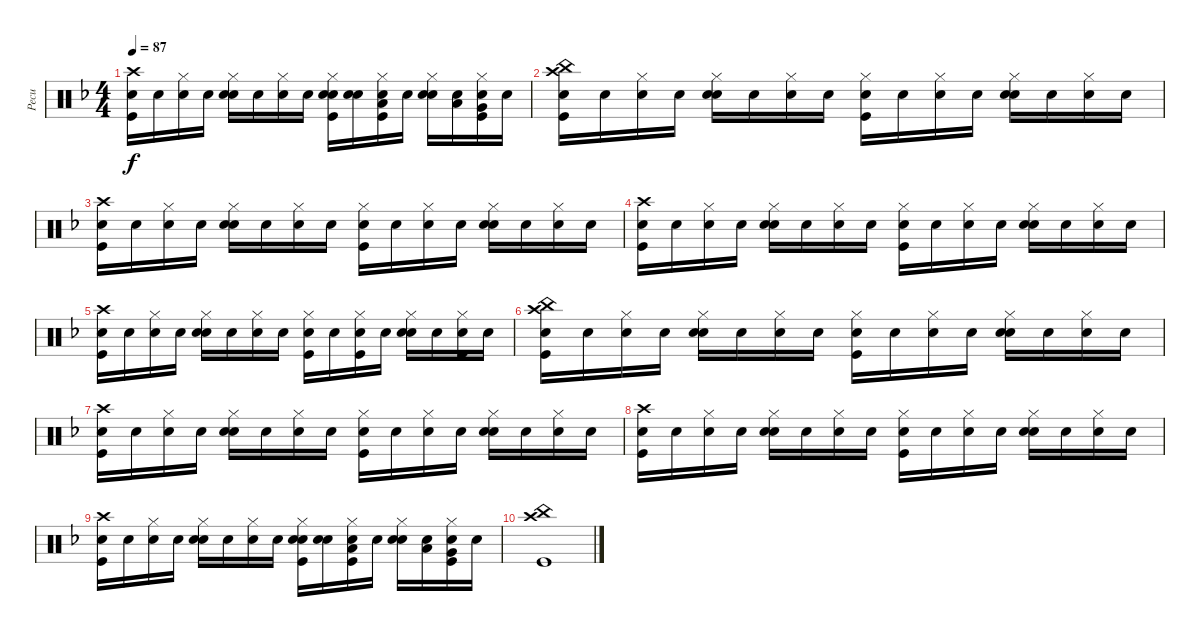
\track ("Pecu" "Pecu") {instrument percussion}
\staff {score}
\articulation defaults
\ts (4 4)
\tempo 87
\clef neutral
\ks dminor
("Snare (hit)" "Crash high (hit)" "Kick (hit)").16{dy f} "Snare (hit)".16 ("Snare (hit)" "Hi-Hat (closed)").16 "Snare (hit)".16 ("Snare (hit)" "Hi-Hat (closed)" "Snare (hit) 2").16 "Snare (hit)".16 ("Snare (hit)" "Hi-Hat (closed)").16 "Snare (hit)".16 ("Snare (hit)" "Hi-Hat (closed)" "Snare (hit) 2" "Kick (hit)").16 ("Snare (hit)" "Snare (hit) 2").16 ("Snare (hit)" "Hi-Hat (closed)" "Low Tom (hit)" "Kick (hit)").16 "Snare (hit)".16 ("Snare (hit)" "Hi-Hat (closed)" "Snare (hit) 2").16 ("Snare (hit)" "Low Tom (hit)").16 ("Snare (hit)" "Hi-Hat (closed)" "Very Low Tom (hit)" "Kick (hit)").16 "Snare (hit)".16 |
("Snare (hit)" "Crash high (hit)" "China (hit)" "Kick (hit)").16 "Snare (hit)".16 ("Snare (hit)" "Hi-Hat (closed)").16 "Snare (hit)".16 ("Snare (hit)" "Hi-Hat (closed)" "Snare (hit) 2").16 "Snare (hit)".16 ("Snare (hit)" "Hi-Hat (closed)").16 "Snare (hit)".16 ("Snare (hit)" "Hi-Hat (closed)" "Kick (hit)").16 "Snare (hit)".16 ("Snare (hit)" "Hi-Hat (closed)").16 "Snare (hit)".16 ("Snare (hit)" "Hi-Hat (closed)" "Snare (hit) 2").16 "Snare (hit)".16 ("Snare (hit)" "Hi-Hat (closed)").16 "Snare (hit)".16 |
("Snare (hit)" "Crash high (hit)" "Kick (hit)").16 "Snare (hit)".16 ("Snare (hit)" "Hi-Hat (closed)").16 "Snare (hit)".16 ("Snare (hit)" "Hi-Hat (closed)" "Snare (hit) 2").16 "Snare (hit)".16 ("Snare (hit)" "Hi-Hat (closed)").16 "Snare (hit)".16 ("Snare (hit)" "Hi-Hat (closed)" "Kick (hit)").16 "Snare (hit)".16 ("Snare (hit)" "Hi-Hat (closed)").16 "Snare (hit)".16 ("Snare (hit)" "Hi-Hat (closed)" "Snare (hit) 2").16 "Snare (hit)".16 ("Snare (hit)" "Hi-Hat (closed)").16 "Snare (hit)".16 |
("Snare (hit)" "Crash high (hit)" "Kick (hit)").16 "Snare (hit)".16 ("Snare (hit)" "Hi-Hat (closed)").16 "Snare (hit)".16 ("Snare (hit)" "Hi-Hat (closed)" "Snare (hit) 2").16 "Snare (hit)".16 ("Snare (hit)" "Hi-Hat (closed)").16 "Snare (hit)".16 ("Snare (hit)" "Hi-Hat (closed)" "Kick (hit)").16 "Snare (hit)".16 ("Snare (hit)" "Hi-Hat (closed)").16 "Snare (hit)".16 ("Snare (hit)" "Hi-Hat (closed)" "Snare (hit) 2").16 "Snare (hit)".16 ("Snare (hit)" "Hi-Hat (closed)").16 "Snare (hit)".16 |
("Snare (hit)" "Crash high (hit)" "Kick (hit)").16 "Snare (hit)".16 ("Snare (hit)" "Hi-Hat (closed)").16 "Snare (hit)".16 ("Snare (hit)" "Hi-Hat (closed)" "Snare (hit) 2").16 "Snare (hit)".16 ("Snare (hit)" "Hi-Hat (closed)").16 "Snare (hit)".16 ("Snare (hit)" "Hi-Hat (closed)" "Kick (hit)").16 "Snare (hit)".16 ("Snare (hit)" "Hi-Hat (closed)" "Kick (hit)").16 "Snare (hit)".16 ("Snare (hit)" "Hi-Hat (closed)" "Snare (hit) 2").16 "Snare (hit)".16 ("Snare (hit)" "Hi-Hat (closed)" "Kick (hit)").16 "Snare (hit)".16 |
("Snare (hit)" "Crash high (hit)" "China (hit)" "Kick (hit)").16 "Snare (hit)".16 ("Snare (hit)" "Hi-Hat (closed)").16 "Snare (hit)".16 ("Snare (hit)" "Hi-Hat (closed)" "Snare (hit) 2").16 "Snare (hit)".16 ("Snare (hit)" "Hi-Hat (closed)").16 "Snare (hit)".16 ("Snare (hit)" "Hi-Hat (closed)" "Kick (hit)").16 "Snare (hit)".16 ("Snare (hit)" "Hi-Hat (closed)").16 "Snare (hit)".16 ("Snare (hit)" "Hi-Hat (closed)" "Snare (hit) 2").16 "Snare (hit)".16 ("Snare (hit)" "Hi-Hat (closed)").16 "Snare (hit)".16 |
("Snare (hit)" "Crash high (hit)" "Kick (hit)").16 "Snare (hit)".16 ("Snare (hit)" "Hi-Hat (closed)").16 "Snare (hit)".16 ("Snare (hit)" "Hi-Hat (closed)" "Snare (hit) 2").16 "Snare (hit)".16 ("Snare (hit)" "Hi-Hat (closed)").16 "Snare (hit)".16 ("Snare (hit)" "Hi-Hat (closed)" "Kick (hit)").16 "Snare (hit)".16 ("Snare (hit)" "Hi-Hat (closed)").16 "Snare (hit)".16 ("Snare (hit)" "Hi-Hat (closed)" "Snare (hit) 2").16 "Snare (hit)".16 ("Snare (hit)" "Hi-Hat (closed)").16 "Snare (hit)".16 |
("Snare (hit)" "Crash high (hit)" "Kick (hit)").16 "Snare (hit)".16 ("Snare (hit)" "Hi-Hat (closed)").16 "Snare (hit)".16 ("Snare (hit)" "Hi-Hat (closed)" "Snare (hit) 2").16 "Snare (hit)".16 ("Snare (hit)" "Hi-Hat (closed)").16 "Snare (hit)".16 ("Snare (hit)" "Hi-Hat (closed)" "Kick (hit)").16 "Snare (hit)".16 ("Snare (hit)" "Hi-Hat (closed)").16 "Snare (hit)".16 ("Snare (hit)" "Hi-Hat (closed)" "Snare (hit) 2").16 "Snare (hit)".16 ("Snare (hit)" "Hi-Hat (closed)").16 "Snare (hit)".16 |
("Snare (hit)" "Crash high (hit)" "Kick (hit)").16 "Snare (hit)".16 ("Snare (hit)" "Hi-Hat (closed)").16 "Snare (hit)".16 ("Snare (hit)" "Hi-Hat (closed)" "Snare (hit) 2").16 "Snare (hit)".16 ("Snare (hit)" "Hi-Hat (closed)").16 "Snare (hit)".16 ("Snare (hit)" "Hi-Hat (closed)" "Snare (hit) 2" "Kick (hit)").16 ("Snare (hit)" "Snare (hit) 2").16 ("Snare (hit)" "Hi-Hat (closed)" "Low Tom (hit)" "Kick (hit)").16 "Snare (hit)".16 ("Snare (hit)" "Hi-Hat (closed)" "Snare (hit) 2").16 ("Snare (hit)" "Low Tom (hit)").16 ("Snare (hit)" "Hi-Hat (closed)" "Very Low Tom (hit)" "Kick (hit)").16 "Snare (hit)".16 |
("China (hit)" "Crash high (hit)" "Kick (hit)").1
